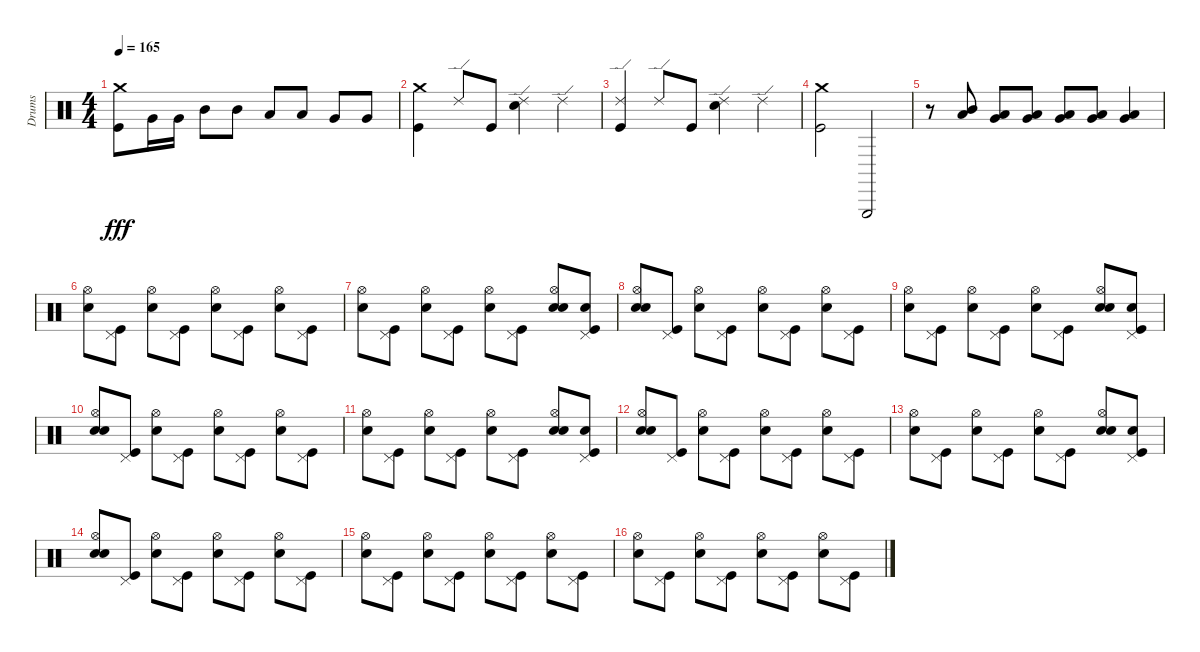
\track ("Drums" "Drums") {instrument percussion}
\staff {score}
\articulation defaults
\ts (4 4)
\tempo 165
\clef neutral
\ks c
("Crash medium (hit)" "Kick (hit)").8{dy fff} "Very Low Tom (hit)".16 "Very Low Tom (hit)".16 "Mid Tom (hit)".8 "Mid Tom (hit)".8 "Low Tom (hit)".8 "Low Tom (hit)".8 "Very Low Tom (hit)".8 "Very Low Tom (hit)".8 |
("Crash medium (hit)" "Kick (hit)").4 "Ride (edge) 2".8 "Kick (hit)".8 ("Ride (edge) 2" "Snare (hit) 2").4 "Ride (edge) 2".4 |
("Ride (edge) 2" "Kick (hit)").4 "Ride (edge) 2".8 "Kick (hit)".8 ("Ride (edge) 2" "Snare (hit) 2").4 "Ride (edge) 2".4 |
("Crash medium (hit)" "Kick (hit)").2 "Triangle (hit)".2 |
r.8 ("Mid Tom (hit)" "Low Tom (hit)").8 ("Low Tom (hit)" "Very Low Tom (hit)").8 ("Low Tom (hit)" "Very Low Tom (hit)").8 ("Low Tom (hit)" "Very Low Tom (hit)").8 ("Very Low Tom (hit)" "Low Floor Tom (hit)").8 ("Very Low Tom (hit)" "Low Floor Tom (hit)").4 |
("Hi-Hat (open)" "Snare (hit) 2").8 ("Pedal Hi-Hat (hit)" "Kick (hit)").8 ("Hi-Hat (open)" "Snare (hit) 2").8 ("Pedal Hi-Hat (hit)" "Kick (hit)").8 ("Hi-Hat (open)" "Snare (hit) 2").8 ("Pedal Hi-Hat (hit)" "Kick (hit)").8 ("Hi-Hat (open)" "Snare (hit) 2").8 ("Pedal Hi-Hat (hit)" "Kick (hit)").8 |
("Hi-Hat (open)" "Snare (hit) 2").8 ("Pedal Hi-Hat (hit)" "Kick (hit)").8 ("Hi-Hat (open)" "Snare (hit) 2").8 ("Pedal Hi-Hat (hit)" "Kick (hit)").8 ("Hi-Hat (open)" "Snare (hit) 2").8 ("Pedal Hi-Hat (hit)" "Kick (hit)").8 ("Hi-Hat (open)" "Hand Clap (hit)" "Snare (hit) 2").8 ("Pedal Hi-Hat (hit)" "Hand Clap (hit)" "Kick (hit)").8 |
("Hi-Hat (open)" "Hand Clap (hit)" "Snare (hit) 2").8 ("Pedal Hi-Hat (hit)" "Kick (hit)").8 ("Hi-Hat (open)" "Snare (hit) 2").8 ("Pedal Hi-Hat (hit)" "Kick (hit)").8 ("Hi-Hat (open)" "Snare (hit) 2").8 ("Pedal Hi-Hat (hit)" "Kick (hit)").8 ("Hi-Hat (open)" "Snare (hit) 2").8 ("Pedal Hi-Hat (hit)" "Kick (hit)").8 |
("Hi-Hat (open)" "Snare (hit) 2").8 ("Pedal Hi-Hat (hit)" "Kick (hit)").8 ("Hi-Hat (open)" "Snare (hit) 2").8 ("Pedal Hi-Hat (hit)" "Kick (hit)").8 ("Hi-Hat (open)" "Snare (hit) 2").8 ("Pedal Hi-Hat (hit)" "Kick (hit)").8 ("Hi-Hat (open)" "Hand Clap (hit)" "Snare (hit) 2").8 ("Pedal Hi-Hat (hit)" "Hand Clap (hit)" "Kick (hit)").8 |
("Hi-Hat (open)" "Hand Clap (hit)" "Snare (hit) 2").8 ("Pedal Hi-Hat (hit)" "Kick (hit)").8 ("Hi-Hat (open)" "Snare (hit) 2").8 ("Pedal Hi-Hat (hit)" "Kick (hit)").8 ("Hi-Hat (open)" "Snare (hit) 2").8 ("Pedal Hi-Hat (hit)" "Kick (hit)").8 ("Hi-Hat (open)" "Snare (hit) 2").8 ("Pedal Hi-Hat (hit)" "Kick (hit)").8 |
("Hi-Hat (open)" "Snare (hit) 2").8 ("Pedal Hi-Hat (hit)" "Kick (hit)").8 ("Hi-Hat (open)" "Snare (hit) 2").8 ("Pedal Hi-Hat (hit)" "Kick (hit)").8 ("Hi-Hat (open)" "Snare (hit) 2").8 ("Pedal Hi-Hat (hit)" "Kick (hit)").8 ("Hi-Hat (open)" "Hand Clap (hit)" "Snare (hit) 2").8 ("Pedal Hi-Hat (hit)" "Hand Clap (hit)" "Kick (hit)").8 |
("Hi-Hat (open)" "Hand Clap (hit)" "Snare (hit) 2").8 ("Pedal Hi-Hat (hit)" "Kick (hit)").8 ("Hi-Hat (open)" "Snare (hit) 2").8 ("Pedal Hi-Hat (hit)" "Kick (hit)").8 ("Hi-Hat (open)" "Snare (hit) 2").8 ("Pedal Hi-Hat (hit)" "Kick (hit)").8 ("Hi-Hat (open)" "Snare (hit) 2").8 ("Pedal Hi-Hat (hit)" "Kick (hit)").8 |
("Hi-Hat (open)" "Snare (hit) 2").8 ("Pedal Hi-Hat (hit)" "Kick (hit)").8 ("Hi-Hat (open)" "Snare (hit) 2").8 ("Pedal Hi-Hat (hit)" "Kick (hit)").8 ("Hi-Hat (open)" "Snare (hit) 2").8 ("Pedal Hi-Hat (hit)" "Kick (hit)").8 ("Hi-Hat (open)" "Hand Clap (hit)" "Snare (hit) 2").8 ("Pedal Hi-Hat (hit)" "Hand Clap (hit)" "Kick (hit)").8 |
("Hi-Hat (open)" "Hand Clap (hit)" "Snare (hit) 2").8 ("Pedal Hi-Hat (hit)" "Kick (hit)").8 ("Hi-Hat (open)" "Snare (hit) 2").8 ("Pedal Hi-Hat (hit)" "Kick (hit)").8 ("Hi-Hat (open)" "Snare (hit) 2").8 ("Pedal Hi-Hat (hit)" "Kick (hit)").8 ("Hi-Hat (open)" "Snare (hit) 2").8 ("Pedal Hi-Hat (hit)" "Kick (hit)").8 |
("Hi-Hat (open)" "Snare (hit) 2").8 ("Pedal Hi-Hat (hit)" "Kick (hit)").8 ("Hi-Hat (open)" "Snare (hit) 2").8 ("Pedal Hi-Hat (hit)" "Kick (hit)").8 ("Hi-Hat (open)" "Snare (hit) 2").8 ("Pedal Hi-Hat (hit)" "Kick (hit)").8 ("Hi-Hat (open)" "Snare (hit) 2").8 ("Pedal Hi-Hat (hit)" "Kick (hit)").8 |
("Hi-Hat (open)" "Snare (hit) 2").8 ("Pedal Hi-Hat (hit)" "Kick (hit)").8 ("Hi-Hat (open)" "Snare (hit) 2").8 ("Pedal Hi-Hat (hit)" "Kick (hit)").8 ("Hi-Hat (open)" "Snare (hit) 2").8 ("Pedal Hi-Hat (hit)" "Kick (hit)").8 ("Hi-Hat (open)" "Snare (hit) 2").8 ("Pedal Hi-Hat (hit)" "Kick (hit)").8
